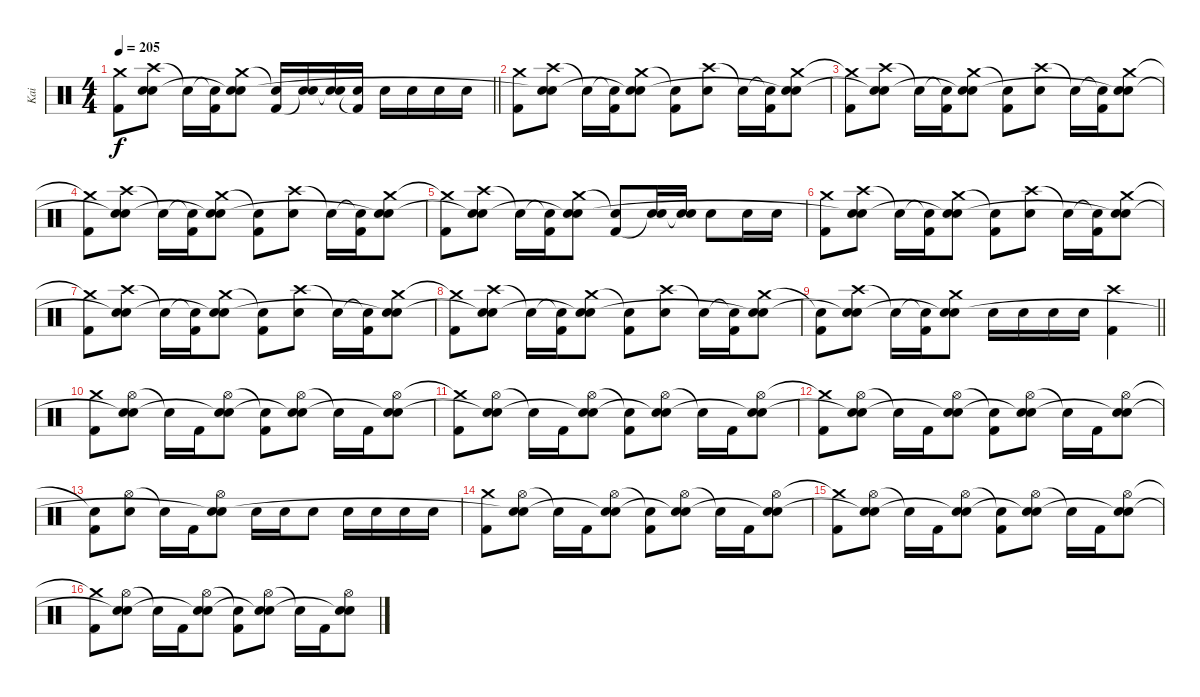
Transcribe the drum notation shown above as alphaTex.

\track ("Kai" "Kai") {instrument percussion}
\staff {score}
\articulation defaults
\ts (4 4)
\tempo 205
\clef neutral
\barLineRight lightlight
\ks c
("Crash medium (hit)"{t} "Kick (hit) 2").8{dy f} ("Crash high (hit)" "Snare (hit) 2" "Snare (hit)"{t}).8 "Snare (hit)"{t}.16 ("Snare (hit)"{t} "Kick (hit) 2").16 ("Crash medium (hit)" "Snare (hit) 2" "Snare (hit)"{t}).8 ("Snare (hit)"{t} "Kick (hit) 2").16 ("Snare (hit) 2" "Snare (hit)"{t}).16 ("Snare (hit) 2" "Snare (hit)"{t}).16 ("Snare (hit) 2" "Kick (hit) 2"{t}).16 "Snare (hit) 2".16 "Snare (hit) 2".16 "Snare (hit) 2".16 "Snare (hit) 2".16 |
("Crash medium (hit)" "Kick (hit) 2").8 ("Crash high (hit)" "Snare (hit) 2" "Snare (hit)"{t}).8 "Snare (hit)"{t}.16 ("Snare (hit)"{t} "Kick (hit) 2").16 ("Crash medium (hit)" "Snare (hit) 2" "Snare (hit)"{t}).8 ("Snare (hit)"{t} "Kick (hit) 2").8 ("Crash high (hit)" "Snare (hit) 2").8 "Snare (hit)"{t}.16 ("Snare (hit)"{t} "Kick (hit) 2").16 ("Crash medium (hit)" "Snare (hit) 2" "Snare (hit)"{t}).8 |
("Crash medium (hit)"{t} "Kick (hit) 2").8 ("Crash high (hit)" "Snare (hit) 2" "Snare (hit)"{t}).8 "Snare (hit)"{t}.16 ("Snare (hit)"{t} "Kick (hit) 2").16 ("Crash medium (hit)" "Snare (hit) 2" "Snare (hit)"{t}).8 ("Snare (hit)"{t} "Kick (hit) 2").8 ("Crash high (hit)" "Snare (hit) 2").8 "Snare (hit)"{t}.16 ("Snare (hit)"{t} "Kick (hit) 2").16 ("Crash medium (hit)" "Snare (hit) 2" "Snare (hit)"{t}).8 |
("Crash medium (hit)"{t} "Kick (hit) 2").8 ("Crash high (hit)" "Snare (hit) 2" "Snare (hit)"{t}).8 "Snare (hit)"{t}.16 ("Snare (hit)"{t} "Kick (hit) 2").16 ("Crash medium (hit)" "Snare (hit) 2" "Snare (hit)"{t}).8 ("Snare (hit)"{t} "Kick (hit) 2").8 ("Crash high (hit)" "Snare (hit) 2").8 "Snare (hit)"{t}.16 ("Snare (hit)"{t} "Kick (hit) 2").16 ("Crash medium (hit)" "Snare (hit) 2" "Snare (hit)"{t}).8 |
("Crash medium (hit)"{t} "Kick (hit) 2").8 ("Crash high (hit)" "Snare (hit) 2" "Snare (hit)"{t}).8 "Snare (hit)"{t}.16 ("Snare (hit)"{t} "Kick (hit) 2").16 ("Crash medium (hit)" "Snare (hit) 2" "Snare (hit)"{t}).8 ("Snare (hit)"{t} "Kick (hit) 2").8 ("Snare (hit) 2" "Snare (hit)"{t}).16 ("Snare (hit) 2" "Snare (hit)"{t}).16 "Snare (hit) 2".8 "Snare (hit) 2".16 "Snare (hit) 2".16 |
("Crash medium (hit)" "Kick (hit) 2").8 ("Crash high (hit)" "Snare (hit) 2" "Snare (hit)"{t}).8 "Snare (hit)"{t}.16 ("Snare (hit)"{t} "Kick (hit) 2").16 ("Crash medium (hit)" "Snare (hit) 2" "Snare (hit)"{t}).8 ("Snare (hit)"{t} "Kick (hit) 2").8 ("Crash high (hit)" "Snare (hit) 2").8 "Snare (hit)"{t}.16 ("Snare (hit)"{t} "Kick (hit) 2").16 ("Crash medium (hit)" "Snare (hit) 2" "Snare (hit)"{t}).8 |
("Crash medium (hit)"{t} "Kick (hit) 2").8 ("Crash high (hit)" "Snare (hit) 2" "Snare (hit)"{t}).8 "Snare (hit)"{t}.16 ("Snare (hit)"{t} "Kick (hit) 2").16 ("Crash medium (hit)" "Snare (hit) 2" "Snare (hit)"{t}).8 ("Snare (hit)"{t} "Kick (hit) 2").8 ("Crash high (hit)" "Snare (hit) 2").8 "Snare (hit)"{t}.16 ("Snare (hit)"{t} "Kick (hit) 2").16 ("Crash medium (hit)" "Snare (hit) 2" "Snare (hit)"{t}).8 |
("Crash medium (hit)"{t} "Kick (hit) 2").8 ("Crash high (hit)" "Snare (hit) 2" "Snare (hit)"{t}).8 "Snare (hit)"{t}.16 ("Snare (hit)"{t} "Kick (hit) 2").16 ("Crash medium (hit)" "Snare (hit) 2" "Snare (hit)"{t}).8 ("Snare (hit)"{t} "Kick (hit) 2").8 ("Crash high (hit)" "Snare (hit) 2").8 "Snare (hit)"{t}.16 ("Snare (hit)"{t} "Kick (hit) 2").16 ("Crash medium (hit)" "Snare (hit) 2" "Snare (hit)"{t}).8 |
\barLineRight lightlight
("Snare (hit)"{t} "Kick (hit) 2").8 ("Crash high (hit)" "Snare (hit) 2" "Snare (hit)"{t}).8 "Snare (hit)"{t}.16 ("Snare (hit)"{t} "Kick (hit) 2").16 ("Crash medium (hit)" "Snare (hit) 2" "Snare (hit)"{t}).8 "Snare (hit) 2".16 "Snare (hit) 2".16 "Snare (hit) 2".16 "Snare (hit) 2".16 ("Crash high (hit)" "Kick (hit) 2").4 |
("Crash medium (hit)" "Kick (hit) 2").8 ("Hi-Hat (open)" "Snare (hit) 2" "Snare (hit)"{t}).8 "Snare (hit)"{t}.16 "Kick (hit) 2".16 ("Hi-Hat (open)" "Snare (hit) 2" "Snare (hit)"{t}).8 ("Snare (hit)"{t} "Kick (hit) 2").8 ("Hi-Hat (open)" "Snare (hit) 2" "Snare (hit)"{t}).8 "Snare (hit)"{t}.16 "Kick (hit) 2".16 ("Hi-Hat (open)" "Snare (hit) 2" "Snare (hit)"{t}).8 |
("Crash medium (hit)"{t} "Kick (hit) 2").8 ("Hi-Hat (open)" "Snare (hit) 2" "Snare (hit)"{t}).8 "Snare (hit)"{t}.16 "Kick (hit) 2".16 ("Hi-Hat (open)" "Snare (hit) 2" "Snare (hit)"{t}).8 ("Snare (hit)"{t} "Kick (hit) 2").8 ("Hi-Hat (open)" "Snare (hit) 2" "Snare (hit)"{t}).8 "Snare (hit)"{t}.16 "Kick (hit) 2".16 ("Hi-Hat (open)" "Snare (hit) 2" "Snare (hit)"{t}).8 |
("Crash medium (hit)"{t} "Kick (hit) 2").8 ("Hi-Hat (open)" "Snare (hit) 2" "Snare (hit)"{t}).8 "Snare (hit)"{t}.16 "Kick (hit) 2".16 ("Hi-Hat (open)" "Snare (hit) 2" "Snare (hit)"{t}).8 ("Snare (hit)"{t} "Kick (hit) 2").8 ("Hi-Hat (open)" "Snare (hit) 2" "Snare (hit)"{t}).8 "Snare (hit)"{t}.16 "Kick (hit) 2".16 ("Hi-Hat (open)" "Snare (hit) 2" "Snare (hit)"{t}).8 |
("Snare (hit)"{t} "Kick (hit) 2").8 ("Hi-Hat (open)" "Snare (hit) 2").8 "Snare (hit)"{t}.16 "Kick (hit) 2".16 ("Hi-Hat (open)" "Snare (hit) 2" "Snare (hit)"{t}).8 "Snare (hit) 2".16 "Snare (hit) 2".16 "Snare (hit) 2".8 "Snare (hit) 2".16 "Snare (hit) 2".16 "Snare (hit) 2".16 "Snare (hit) 2".16 |
("Crash medium (hit)" "Kick (hit) 2").8 ("Hi-Hat (open)" "Snare (hit) 2" "Snare (hit)"{t}).8 "Snare (hit)"{t}.16 "Kick (hit) 2".16 ("Hi-Hat (open)" "Snare (hit) 2" "Snare (hit)"{t}).8 ("Snare (hit)"{t} "Kick (hit) 2").8 ("Hi-Hat (open)" "Snare (hit) 2" "Snare (hit)"{t}).8 "Snare (hit)"{t}.16 "Kick (hit) 2".16 ("Hi-Hat (open)" "Snare (hit) 2" "Snare (hit)"{t}).8 |
("Crash medium (hit)"{t} "Kick (hit) 2").8 ("Hi-Hat (open)" "Snare (hit) 2" "Snare (hit)"{t}).8 "Snare (hit)"{t}.16 "Kick (hit) 2".16 ("Hi-Hat (open)" "Snare (hit) 2" "Snare (hit)"{t}).8 ("Snare (hit)"{t} "Kick (hit) 2").8 ("Hi-Hat (open)" "Snare (hit) 2" "Snare (hit)"{t}).8 "Snare (hit)"{t}.16 "Kick (hit) 2".16 ("Hi-Hat (open)" "Snare (hit) 2" "Snare (hit)"{t}).8 |
("Crash medium (hit)"{t} "Kick (hit) 2").8 ("Hi-Hat (open)" "Snare (hit) 2" "Snare (hit)"{t}).8 "Snare (hit)"{t}.16 "Kick (hit) 2".16 ("Hi-Hat (open)" "Snare (hit) 2" "Snare (hit)"{t}).8 ("Snare (hit)"{t} "Kick (hit) 2").8 ("Hi-Hat (open)" "Snare (hit) 2" "Snare (hit)"{t}).8 "Snare (hit)"{t}.16 "Kick (hit) 2".16 ("Hi-Hat (open)" "Snare (hit) 2" "Snare (hit)"{t}).8
